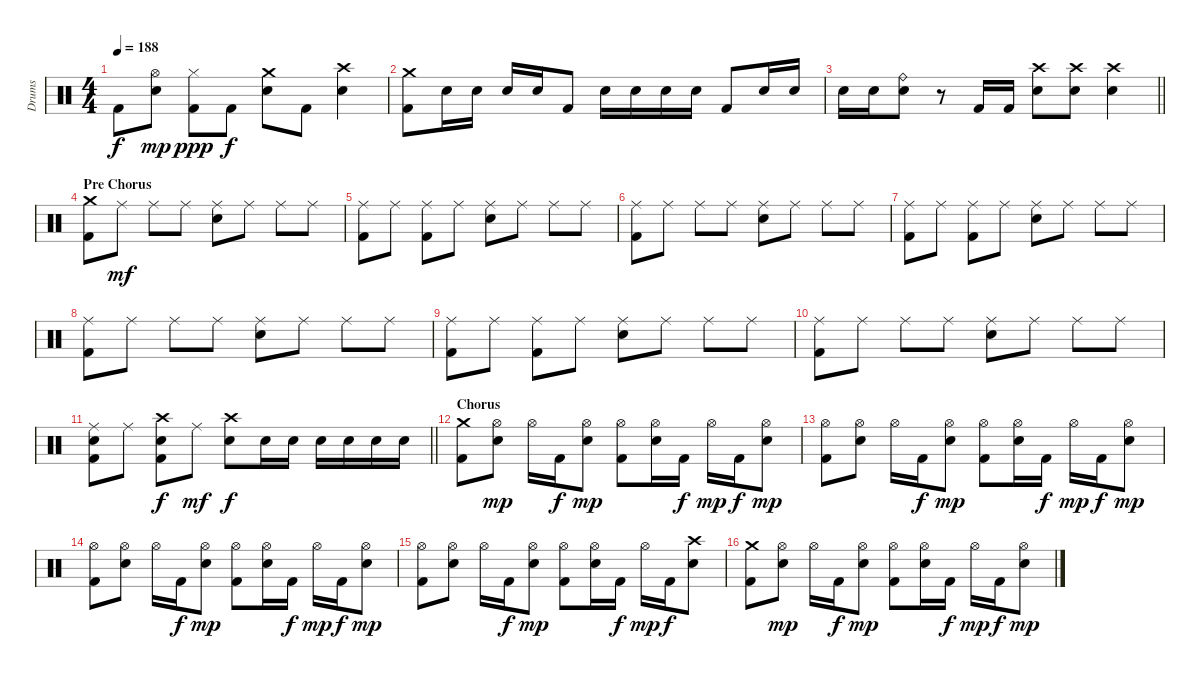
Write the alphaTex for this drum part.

\track ("Drums" "Drums") {instrument percussion}
\staff {score}
\articulation defaults
\ts (4 4)
\tempo 188
\clef neutral
\ks c "Kick (hit) 2".8{dy f}
("Hi-Hat (open)" "Snare (hit) 2").8{dy mp} ("Hi-Hat (closed)" "Kick (hit) 2").8{dy ppp} "Kick (hit) 2".8{dy f} ("Crash medium (hit)" "Snare (hit) 2").8 "Kick (hit) 2".8 ("Crash high (hit)" "Snare (hit) 2").4 |
("Crash medium (hit)" "Kick (hit) 2").8 "Snare (hit) 2".16 "Snare (hit) 2".16 "Snare (hit) 2".16 "Snare (hit) 2".16 "Kick (hit) 2".8 "Snare (hit) 2".16 "Snare (hit) 2".16 "Snare (hit) 2".16 "Snare (hit) 2".16 "Kick (hit) 2".8 "Snare (hit) 2".16 "Snare (hit) 2".16 |
\barLineRight lightlight "Snare (hit) 2".16 "Snare (hit) 2".16
("Ride (bell)" "Snare (hit) 2").8 r.8 "Kick (hit) 2".16 "Kick (hit) 2".16 ("Crash high (hit)" "Snare (hit) 2").8 ("Crash high (hit)" "Snare (hit) 2").8 ("Crash high (hit)" "Snare (hit) 2").4 |
\section ("" "Pre Chorus")
("Crash medium (hit)" "Kick (hit) 2").8 "Ride (middle)".8{dy mf} "Ride (middle)".8 "Ride (middle)".8 ("Ride (middle)" "Snare (hit) 2").8 "Ride (middle)".8 "Ride (middle)".8 "Ride (middle)".8 |
("Ride (middle)" "Kick (hit) 2").8 "Ride (middle)".8 ("Ride (middle)" "Kick (hit) 2").8 "Ride (middle)".8 ("Ride (middle)" "Snare (hit) 2").8 "Ride (middle)".8 "Ride (middle)".8 "Ride (middle)".8 |
("Ride (middle)" "Kick (hit) 2").8 "Ride (middle)".8 "Ride (middle)".8 "Ride (middle)".8 ("Ride (middle)" "Snare (hit) 2").8 "Ride (middle)".8 "Ride (middle)".8 "Ride (middle)".8 |
("Ride (middle)" "Kick (hit) 2").8 "Ride (middle)".8 ("Ride (middle)" "Kick (hit) 2").8 "Ride (middle)".8 ("Ride (middle)" "Snare (hit) 2").8 "Ride (middle)".8 "Ride (middle)".8 "Ride (middle)".8 |
("Ride (middle)" "Kick (hit) 2").8 "Ride (middle)".8 "Ride (middle)".8 "Ride (middle)".8 ("Ride (middle)" "Snare (hit) 2").8 "Ride (middle)".8 "Ride (middle)".8 "Ride (middle)".8 |
("Ride (middle)" "Kick (hit) 2").8 "Ride (middle)".8 ("Ride (middle)" "Kick (hit) 2").8 "Ride (middle)".8 ("Ride (middle)" "Snare (hit) 2").8 "Ride (middle)".8 "Ride (middle)".8 "Ride (middle)".8 |
("Ride (middle)" "Kick (hit) 2").8 "Ride (middle)".8 "Ride (middle)".8 "Ride (middle)".8 ("Ride (middle)" "Snare (hit) 2").8 "Ride (middle)".8 "Ride (middle)".8 "Ride (middle)".8 |
\barLineRight lightlight
("Ride (middle)" "Snare (hit) 2" "Kick (hit) 2").8 "Ride (middle)".8 ("Crash high (hit)" "Snare (hit) 2" "Kick (hit) 2").8{dy f} "Ride (middle)".8{dy mf} ("Crash high (hit)" "Snare (hit) 2").8{dy f} "Snare (hit) 2".16 "Snare (hit) 2".16 "Snare (hit) 2".16 "Snare (hit) 2".16 "Snare (hit) 2".16 "Snare (hit) 2".16 |
\section ("" "Chorus")
("Crash medium (hit)" "Kick (hit) 2").8 ("Hi-Hat (open)" "Snare (hit) 2").8{dy mp} "Hi-Hat (open)".16 "Kick (hit) 2".16{dy f} ("Hi-Hat (open)" "Snare (hit) 2").8{dy mp} ("Hi-Hat (open)" "Kick (hit) 2").8 ("Hi-Hat (open)" "Snare (hit) 2").16 "Kick (hit) 2".16{dy f} "Hi-Hat (open)".16{dy mp} "Kick (hit) 2".16{dy f} ("Hi-Hat (open)" "Snare (hit) 2").8{dy mp} |
("Hi-Hat (open)" "Kick (hit) 2").8 ("Hi-Hat (open)" "Snare (hit) 2").8 "Hi-Hat (open)".16 "Kick (hit) 2".16{dy f} ("Hi-Hat (open)" "Snare (hit) 2").8{dy mp} ("Hi-Hat (open)" "Kick (hit) 2").8 ("Hi-Hat (open)" "Snare (hit) 2").16 "Kick (hit) 2".16{dy f} "Hi-Hat (open)".16{dy mp} "Kick (hit) 2".16{dy f} ("Hi-Hat (open)" "Snare (hit) 2").8{dy mp} |
("Hi-Hat (open)" "Kick (hit) 2").8 ("Hi-Hat (open)" "Snare (hit) 2").8 "Hi-Hat (open)".16 "Kick (hit) 2".16{dy f} ("Hi-Hat (open)" "Snare (hit) 2").8{dy mp} ("Hi-Hat (open)" "Kick (hit) 2").8 ("Hi-Hat (open)" "Snare (hit) 2").16 "Kick (hit) 2".16{dy f} "Hi-Hat (open)".16{dy mp} "Kick (hit) 2".16{dy f} ("Hi-Hat (open)" "Snare (hit) 2").8{dy mp} |
("Hi-Hat (open)" "Kick (hit) 2").8 ("Hi-Hat (open)" "Snare (hit) 2").8 "Hi-Hat (open)".16 "Kick (hit) 2".16{dy f} ("Hi-Hat (open)" "Snare (hit) 2").8{dy mp} ("Hi-Hat (open)" "Kick (hit) 2").8 ("Hi-Hat (open)" "Snare (hit) 2").16 "Kick (hit) 2".16{dy f} "Hi-Hat (open)".16{dy mp} "Kick (hit) 2".16{dy f} ("Crash high (hit)" "Snare (hit) 2").8 |
("Crash medium (hit)" "Kick (hit) 2").8 ("Hi-Hat (open)" "Snare (hit) 2").8{dy mp} "Hi-Hat (open)".16 "Kick (hit) 2".16{dy f} ("Hi-Hat (open)" "Snare (hit) 2").8{dy mp} ("Hi-Hat (open)" "Kick (hit) 2").8 ("Hi-Hat (open)" "Snare (hit) 2").16 "Kick (hit) 2".16{dy f} "Hi-Hat (open)".16{dy mp} "Kick (hit) 2".16{dy f} ("Hi-Hat (open)" "Snare (hit) 2").8{dy mp}
